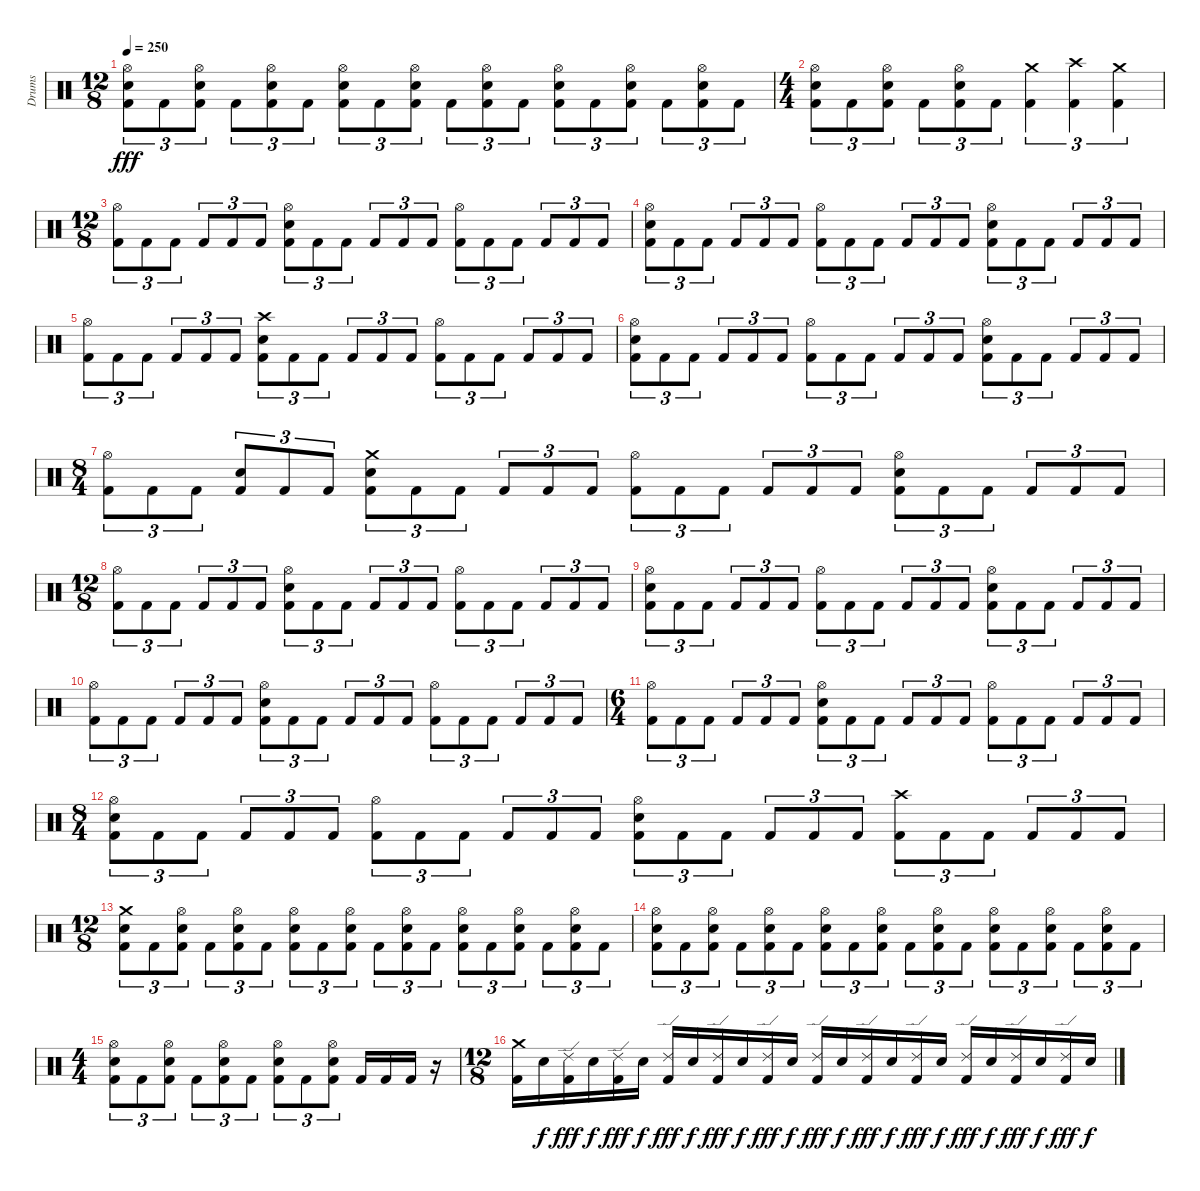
\track ("Drums" "Drums") {instrument percussion}
\staff {score}
\articulation defaults
\ts (12 8)
\tempo 250
\clef neutral
\ks c
("Hi-Hat (open)" "Electric Snare (hit)" "Kick (hit) 2").8{tu (3 2) dy fff} "Kick (hit) 2".8{tu (3 2)} ("Hi-Hat (open)" "Electric Snare (hit)" "Kick (hit) 2").8{tu (3 2)} "Kick (hit) 2".8{tu (3 2)} ("Hi-Hat (open)" "Electric Snare (hit)" "Kick (hit) 2").8{tu (3 2)} "Kick (hit) 2".8{tu (3 2)} ("Hi-Hat (open)" "Electric Snare (hit)" "Kick (hit) 2").8{tu (3 2)} "Kick (hit) 2".8{tu (3 2)} ("Hi-Hat (open)" "Electric Snare (hit)" "Kick (hit) 2").8{tu (3 2)} "Kick (hit) 2".8{tu (3 2)} ("Hi-Hat (open)" "Electric Snare (hit)" "Kick (hit) 2").8{tu (3 2)} "Kick (hit) 2".8{tu (3 2)} ("Hi-Hat (open)" "Electric Snare (hit)" "Kick (hit) 2").8{tu (3 2)} "Kick (hit) 2".8{tu (3 2)} ("Hi-Hat (open)" "Electric Snare (hit)" "Kick (hit) 2").8{tu (3 2)} "Kick (hit) 2".8{tu (3 2)} ("Hi-Hat (open)" "Electric Snare (hit)" "Kick (hit) 2").8{tu (3 2)} "Kick (hit) 2".8{tu (3 2)} |
\ts (4 4)
("Hi-Hat (open)" "Electric Snare (hit)" "Kick (hit) 2").8{tu (3 2)} "Kick (hit) 2".8{tu (3 2)} ("Hi-Hat (open)" "Electric Snare (hit)" "Kick (hit) 2").8{tu (3 2)} "Kick (hit) 2".8{tu (3 2)} ("Hi-Hat (open)" "Electric Snare (hit)" "Kick (hit) 2").8{tu (3 2)} "Kick (hit) 2".8{tu (3 2)} ("Crash medium (hit)" "Kick (hit) 2").4{tu (3 2)} ("Crash high (hit)" "Kick (hit) 2").4{tu (3 2)} ("Crash medium (hit)" "Kick (hit) 2").4{tu (3 2)} |
\ts (12 8)
("Hi-Hat (open)" "Kick (hit) 2").8{tu (3 2)} "Kick (hit) 2".8{tu (3 2)} "Kick (hit) 2".8{tu (3 2)} "Kick (hit) 2".8{tu (3 2)} "Kick (hit) 2".8{tu (3 2)} "Kick (hit) 2".8{tu (3 2)} ("Hi-Hat (open)" "Electric Snare (hit)" "Kick (hit) 2").8{tu (3 2)} "Kick (hit) 2".8{tu (3 2)} "Kick (hit) 2".8{tu (3 2)} "Kick (hit) 2".8{tu (3 2)} "Kick (hit) 2".8{tu (3 2)} "Kick (hit) 2".8{tu (3 2)} ("Hi-Hat (open)" "Kick (hit) 2").8{tu (3 2)} "Kick (hit) 2".8{tu (3 2)} "Kick (hit) 2".8{tu (3 2)} "Kick (hit) 2".8{tu (3 2)} "Kick (hit) 2".8{tu (3 2)} "Kick (hit) 2".8{tu (3 2)} |
("Hi-Hat (open)" "Electric Snare (hit)" "Kick (hit) 2").8{tu (3 2)} "Kick (hit) 2".8{tu (3 2)} "Kick (hit) 2".8{tu (3 2)} "Kick (hit) 2".8{tu (3 2)} "Kick (hit) 2".8{tu (3 2)} "Kick (hit) 2".8{tu (3 2)} ("Hi-Hat (open)" "Kick (hit) 2").8{tu (3 2)} "Kick (hit) 2".8{tu (3 2)} "Kick (hit) 2".8{tu (3 2)} "Kick (hit) 2".8{tu (3 2)} "Kick (hit) 2".8{tu (3 2)} "Kick (hit) 2".8{tu (3 2)} ("Hi-Hat (open)" "Electric Snare (hit)" "Kick (hit) 2").8{tu (3 2)} "Kick (hit) 2".8{tu (3 2)} "Kick (hit) 2".8{tu (3 2)} "Kick (hit) 2".8{tu (3 2)} "Kick (hit) 2".8{tu (3 2)} "Kick (hit) 2".8{tu (3 2)} |
("Hi-Hat (open)" "Kick (hit) 2").8{tu (3 2)} "Kick (hit) 2".8{tu (3 2)} "Kick (hit) 2".8{tu (3 2)} "Kick (hit) 2".8{tu (3 2)} "Kick (hit) 2".8{tu (3 2)} "Kick (hit) 2".8{tu (3 2)} ("Crash high (hit)" "Electric Snare (hit)" "Kick (hit) 2").8{tu (3 2)} "Kick (hit) 2".8{tu (3 2)} "Kick (hit) 2".8{tu (3 2)} "Kick (hit) 2".8{tu (3 2)} "Kick (hit) 2".8{tu (3 2)} "Kick (hit) 2".8{tu (3 2)} ("Hi-Hat (open)" "Kick (hit) 2").8{tu (3 2)} "Kick (hit) 2".8{tu (3 2)} "Kick (hit) 2".8{tu (3 2)} "Kick (hit) 2".8{tu (3 2)} "Kick (hit) 2".8{tu (3 2)} "Kick (hit) 2".8{tu (3 2)} |
("Hi-Hat (open)" "Electric Snare (hit)" "Kick (hit) 2").8{tu (3 2)} "Kick (hit) 2".8{tu (3 2)} "Kick (hit) 2".8{tu (3 2)} "Kick (hit) 2".8{tu (3 2)} "Kick (hit) 2".8{tu (3 2)} "Kick (hit) 2".8{tu (3 2)} ("Hi-Hat (open)" "Kick (hit) 2").8{tu (3 2)} "Kick (hit) 2".8{tu (3 2)} "Kick (hit) 2".8{tu (3 2)} "Kick (hit) 2".8{tu (3 2)} "Kick (hit) 2".8{tu (3 2)} "Kick (hit) 2".8{tu (3 2)} ("Hi-Hat (open)" "Electric Snare (hit)" "Kick (hit) 2").8{tu (3 2)} "Kick (hit) 2".8{tu (3 2)} "Kick (hit) 2".8{tu (3 2)} "Kick (hit) 2".8{tu (3 2)} "Kick (hit) 2".8{tu (3 2)} "Kick (hit) 2".8{tu (3 2)} |
\ts (8 4)
("Hi-Hat (open)" "Kick (hit) 2").8{tu (3 2)} "Kick (hit) 2".8{tu (3 2)} "Kick (hit) 2".8{tu (3 2)} ("Electric Snare (hit)" "Kick (hit) 2").8{tu (3 2)} "Kick (hit) 2".8{tu (3 2)} "Kick (hit) 2".8{tu (3 2)} ("Crash medium (hit)" "Electric Snare (hit)" "Kick (hit) 2").8{tu (3 2)} "Kick (hit) 2".8{tu (3 2)} "Kick (hit) 2".8{tu (3 2)} "Kick (hit) 2".8{tu (3 2)} "Kick (hit) 2".8{tu (3 2)} "Kick (hit) 2".8{tu (3 2)} ("Hi-Hat (open)" "Kick (hit) 2").8{tu (3 2)} "Kick (hit) 2".8{tu (3 2)} "Kick (hit) 2".8{tu (3 2)} "Kick (hit) 2".8{tu (3 2)} "Kick (hit) 2".8{tu (3 2)} "Kick (hit) 2".8{tu (3 2)} ("Hi-Hat (open)" "Electric Snare (hit)" "Kick (hit) 2").8{tu (3 2)} "Kick (hit) 2".8{tu (3 2)} "Kick (hit) 2".8{tu (3 2)} "Kick (hit) 2".8{tu (3 2)} "Kick (hit) 2".8{tu (3 2)} "Kick (hit) 2".8{tu (3 2)} |
\ts (12 8)
("Hi-Hat (open)" "Kick (hit) 2").8{tu (3 2)} "Kick (hit) 2".8{tu (3 2)} "Kick (hit) 2".8{tu (3 2)} "Kick (hit) 2".8{tu (3 2)} "Kick (hit) 2".8{tu (3 2)} "Kick (hit) 2".8{tu (3 2)} ("Hi-Hat (open)" "Electric Snare (hit)" "Kick (hit) 2").8{tu (3 2)} "Kick (hit) 2".8{tu (3 2)} "Kick (hit) 2".8{tu (3 2)} "Kick (hit) 2".8{tu (3 2)} "Kick (hit) 2".8{tu (3 2)} "Kick (hit) 2".8{tu (3 2)} ("Hi-Hat (open)" "Kick (hit) 2").8{tu (3 2)} "Kick (hit) 2".8{tu (3 2)} "Kick (hit) 2".8{tu (3 2)} "Kick (hit) 2".8{tu (3 2)} "Kick (hit) 2".8{tu (3 2)} "Kick (hit) 2".8{tu (3 2)} |
("Hi-Hat (open)" "Electric Snare (hit)" "Kick (hit) 2").8{tu (3 2)} "Kick (hit) 2".8{tu (3 2)} "Kick (hit) 2".8{tu (3 2)} "Kick (hit) 2".8{tu (3 2)} "Kick (hit) 2".8{tu (3 2)} "Kick (hit) 2".8{tu (3 2)} ("Hi-Hat (open)" "Kick (hit) 2").8{tu (3 2)} "Kick (hit) 2".8{tu (3 2)} "Kick (hit) 2".8{tu (3 2)} "Kick (hit) 2".8{tu (3 2)} "Kick (hit) 2".8{tu (3 2)} "Kick (hit) 2".8{tu (3 2)} ("Hi-Hat (open)" "Electric Snare (hit)" "Kick (hit) 2").8{tu (3 2)} "Kick (hit) 2".8{tu (3 2)} "Kick (hit) 2".8{tu (3 2)} "Kick (hit) 2".8{tu (3 2)} "Kick (hit) 2".8{tu (3 2)} "Kick (hit) 2".8{tu (3 2)} |
("Hi-Hat (open)" "Kick (hit) 2").8{tu (3 2)} "Kick (hit) 2".8{tu (3 2)} "Kick (hit) 2".8{tu (3 2)} "Kick (hit) 2".8{tu (3 2)} "Kick (hit) 2".8{tu (3 2)} "Kick (hit) 2".8{tu (3 2)} ("Hi-Hat (open)" "Electric Snare (hit)" "Kick (hit) 2").8{tu (3 2)} "Kick (hit) 2".8{tu (3 2)} "Kick (hit) 2".8{tu (3 2)} "Kick (hit) 2".8{tu (3 2)} "Kick (hit) 2".8{tu (3 2)} "Kick (hit) 2".8{tu (3 2)} ("Hi-Hat (open)" "Kick (hit) 2").8{tu (3 2)} "Kick (hit) 2".8{tu (3 2)} "Kick (hit) 2".8{tu (3 2)} "Kick (hit) 2".8{tu (3 2)} "Kick (hit) 2".8{tu (3 2)} "Kick (hit) 2".8{tu (3 2)} |
\ts (6 4)
("Hi-Hat (open)" "Kick (hit) 2").8{tu (3 2)} "Kick (hit) 2".8{tu (3 2)} "Kick (hit) 2".8{tu (3 2)} "Kick (hit) 2".8{tu (3 2)} "Kick (hit) 2".8{tu (3 2)} "Kick (hit) 2".8{tu (3 2)} ("Hi-Hat (open)" "Electric Snare (hit)" "Kick (hit) 2").8{tu (3 2)} "Kick (hit) 2".8{tu (3 2)} "Kick (hit) 2".8{tu (3 2)} "Kick (hit) 2".8{tu (3 2)} "Kick (hit) 2".8{tu (3 2)} "Kick (hit) 2".8{tu (3 2)} ("Hi-Hat (open)" "Kick (hit) 2").8{tu (3 2)} "Kick (hit) 2".8{tu (3 2)} "Kick (hit) 2".8{tu (3 2)} "Kick (hit) 2".8{tu (3 2)} "Kick (hit) 2".8{tu (3 2)} "Kick (hit) 2".8{tu (3 2)} |
\ts (8 4)
("Hi-Hat (open)" "Electric Snare (hit)" "Kick (hit) 2").8{tu (3 2)} "Kick (hit) 2".8{tu (3 2)} "Kick (hit) 2".8{tu (3 2)} "Kick (hit) 2".8{tu (3 2)} "Kick (hit) 2".8{tu (3 2)} "Kick (hit) 2".8{tu (3 2)} ("Hi-Hat (open)" "Kick (hit) 2").8{tu (3 2)} "Kick (hit) 2".8{tu (3 2)} "Kick (hit) 2".8{tu (3 2)} "Kick (hit) 2".8{tu (3 2)} "Kick (hit) 2".8{tu (3 2)} "Kick (hit) 2".8{tu (3 2)} ("Hi-Hat (open)" "Electric Snare (hit)" "Kick (hit) 2").8{tu (3 2)} "Kick (hit) 2".8{tu (3 2)} "Kick (hit) 2".8{tu (3 2)} "Kick (hit) 2".8{tu (3 2)} "Kick (hit) 2".8{tu (3 2)} "Kick (hit) 2".8{tu (3 2)} ("Crash high (hit)" "Kick (hit) 2").8{tu (3 2)} "Kick (hit) 2".8{tu (3 2)} "Kick (hit) 2".8{tu (3 2)} "Kick (hit) 2".8{tu (3 2)} "Kick (hit) 2".8{tu (3 2)} "Kick (hit) 2".8{tu (3 2)} |
\ts (12 8)
("Crash medium (hit)" "Electric Snare (hit)" "Kick (hit) 2").8{tu (3 2)} "Kick (hit) 2".8{tu (3 2)} ("Hi-Hat (open)" "Electric Snare (hit)" "Kick (hit) 2").8{tu (3 2)} "Kick (hit) 2".8{tu (3 2)} ("Hi-Hat (open)" "Electric Snare (hit)" "Kick (hit) 2").8{tu (3 2)} "Kick (hit) 2".8{tu (3 2)} ("Hi-Hat (open)" "Electric Snare (hit)" "Kick (hit) 2").8{tu (3 2)} "Kick (hit) 2".8{tu (3 2)} ("Hi-Hat (open)" "Electric Snare (hit)" "Kick (hit) 2").8{tu (3 2)} "Kick (hit) 2".8{tu (3 2)} ("Hi-Hat (open)" "Electric Snare (hit)" "Kick (hit) 2").8{tu (3 2)} "Kick (hit) 2".8{tu (3 2)} ("Hi-Hat (open)" "Electric Snare (hit)" "Kick (hit) 2").8{tu (3 2)} "Kick (hit) 2".8{tu (3 2)} ("Hi-Hat (open)" "Electric Snare (hit)" "Kick (hit) 2").8{tu (3 2)} "Kick (hit) 2".8{tu (3 2)} ("Hi-Hat (open)" "Electric Snare (hit)" "Kick (hit) 2").8{tu (3 2)} "Kick (hit) 2".8{tu (3 2)} |
("Hi-Hat (open)" "Electric Snare (hit)" "Kick (hit) 2").8{tu (3 2)} "Kick (hit) 2".8{tu (3 2)} ("Hi-Hat (open)" "Electric Snare (hit)" "Kick (hit) 2").8{tu (3 2)} "Kick (hit) 2".8{tu (3 2)} ("Hi-Hat (open)" "Electric Snare (hit)" "Kick (hit) 2").8{tu (3 2)} "Kick (hit) 2".8{tu (3 2)} ("Hi-Hat (open)" "Electric Snare (hit)" "Kick (hit) 2").8{tu (3 2)} "Kick (hit) 2".8{tu (3 2)} ("Hi-Hat (open)" "Electric Snare (hit)" "Kick (hit) 2").8{tu (3 2)} "Kick (hit) 2".8{tu (3 2)} ("Hi-Hat (open)" "Electric Snare (hit)" "Kick (hit) 2").8{tu (3 2)} "Kick (hit) 2".8{tu (3 2)} ("Hi-Hat (open)" "Electric Snare (hit)" "Kick (hit) 2").8{tu (3 2)} "Kick (hit) 2".8{tu (3 2)} ("Hi-Hat (open)" "Electric Snare (hit)" "Kick (hit) 2").8{tu (3 2)} "Kick (hit) 2".8{tu (3 2)} ("Hi-Hat (open)" "Electric Snare (hit)" "Kick (hit) 2").8{tu (3 2)} "Kick (hit) 2".8{tu (3 2)} |
\ts (4 4)
("Hi-Hat (open)" "Electric Snare (hit)" "Kick (hit) 2").8{tu (3 2)} "Kick (hit) 2".8{tu (3 2)} ("Hi-Hat (open)" "Electric Snare (hit)" "Kick (hit) 2").8{tu (3 2)} "Kick (hit) 2".8{tu (3 2)} ("Hi-Hat (open)" "Electric Snare (hit)" "Kick (hit) 2").8{tu (3 2)} "Kick (hit) 2".8{tu (3 2)} ("Hi-Hat (open)" "Electric Snare (hit)" "Kick (hit) 2").8{tu (3 2)} "Kick (hit) 2".8{tu (3 2)} ("Hi-Hat (open)" "Electric Snare (hit)" "Kick (hit) 2").8{tu (3 2)} "Kick (hit) 2".16 "Kick (hit) 2".16 "Kick (hit) 2".16 r.16 |
\ts (12 8)
("Crash medium (hit)" "Kick (hit) 2").16 "Electric Snare (hit)".16{dy f} ("Ride (edge) 2" "Kick (hit) 2").16{dy fff} "Electric Snare (hit)".16{dy f} ("Ride (edge) 2" "Kick (hit) 2").16{dy fff} "Electric Snare (hit)".16{dy f} ("Ride (edge) 2" "Kick (hit) 2").16{dy fff} "Electric Snare (hit)".16{dy f} ("Ride (edge) 2" "Kick (hit) 2").16{dy fff} "Electric Snare (hit)".16{dy f} ("Ride (edge) 2" "Kick (hit) 2").16{dy fff} "Electric Snare (hit)".16{dy f} ("Ride (edge) 2" "Kick (hit) 2").16{dy fff} "Electric Snare (hit)".16{dy f} ("Ride (edge) 2" "Kick (hit) 2").16{dy fff} "Electric Snare (hit)".16{dy f} ("Ride (edge) 2" "Kick (hit) 2").16{dy fff} "Electric Snare (hit)".16{dy f} ("Ride (edge) 2" "Kick (hit) 2").16{dy fff} "Electric Snare (hit)".16{dy f} ("Ride (edge) 2" "Kick (hit) 2").16{dy fff} "Electric Snare (hit)".16{dy f} ("Ride (edge) 2" "Kick (hit) 2").16{dy fff} "Electric Snare (hit)".16{dy f}
